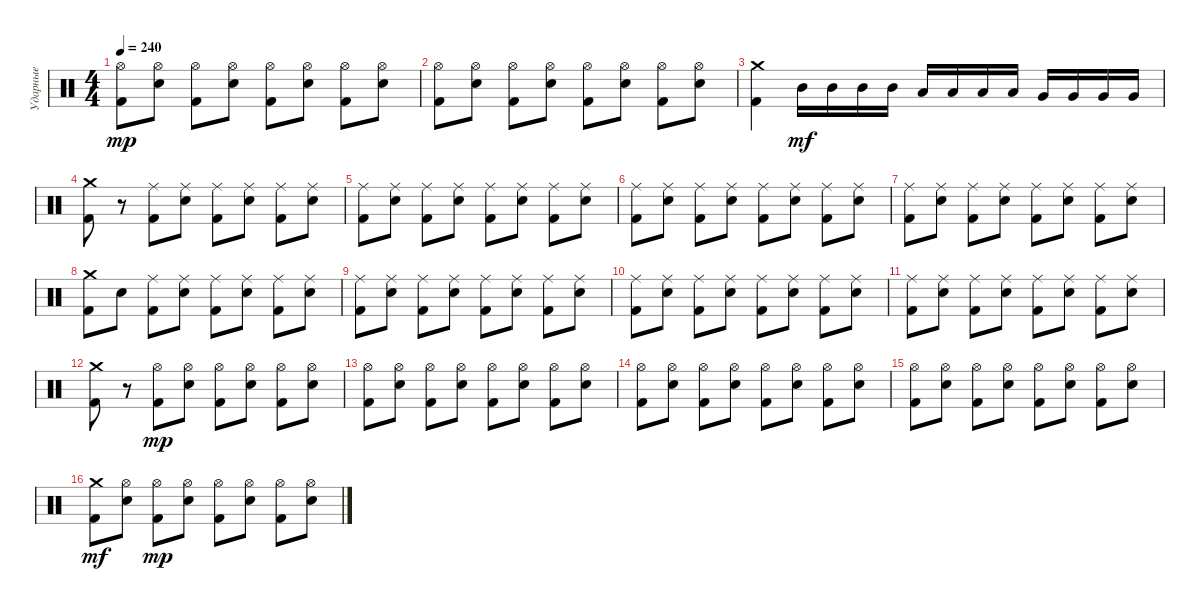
\track ("Ударные" "Ударные") {instrument percussion}
\staff {score}
\articulation defaults
\ts (4 4)
\tempo 240
\clef neutral
\ks c
("Hi-Hat (open)" "Kick (hit) 2").8{dy mp} ("Hi-Hat (open)" "Snare (hit) 2").8 ("Hi-Hat (open)" "Kick (hit) 2").8 ("Hi-Hat (open)" "Snare (hit) 2").8 ("Hi-Hat (open)" "Kick (hit) 2").8 ("Hi-Hat (open)" "Snare (hit) 2").8 ("Hi-Hat (open)" "Kick (hit) 2").8 ("Hi-Hat (open)" "Snare (hit) 2").8 |
("Hi-Hat (open)" "Kick (hit) 2").8 ("Hi-Hat (open)" "Snare (hit) 2").8 ("Hi-Hat (open)" "Kick (hit) 2").8 ("Hi-Hat (open)" "Snare (hit) 2").8 ("Hi-Hat (open)" "Kick (hit) 2").8 ("Hi-Hat (open)" "Snare (hit) 2").8 ("Hi-Hat (open)" "Kick (hit) 2").8 ("Hi-Hat (open)" "Snare (hit) 2").8 |
("Crash medium (hit)" "Kick (hit) 2").4 "Mid Tom (hit)".16{dy mf} "Mid Tom (hit)".16 "Mid Tom (hit)".16 "Mid Tom (hit)".16 "Low Tom (hit)".16 "Low Tom (hit)".16 "Low Tom (hit)".16 "Low Tom (hit)".16 "Very Low Tom (hit)".16 "Very Low Tom (hit)".16 "Very Low Tom (hit)".16 "Very Low Tom (hit)".16 |
("Crash medium (hit)" "Kick (hit) 2").8 r.8 ("Ride (middle)" "Kick (hit) 2").8 ("Ride (middle)" "Snare (hit) 2").8 ("Ride (middle)" "Kick (hit) 2").8 ("Ride (middle)" "Snare (hit) 2").8 ("Ride (middle)" "Kick (hit) 2").8 ("Ride (middle)" "Snare (hit) 2").8 |
("Ride (middle)" "Kick (hit) 2").8 ("Ride (middle)" "Snare (hit) 2").8 ("Ride (middle)" "Kick (hit) 2").8 ("Ride (middle)" "Snare (hit) 2").8 ("Ride (middle)" "Kick (hit) 2").8 ("Ride (middle)" "Snare (hit) 2").8 ("Ride (middle)" "Kick (hit) 2").8 ("Ride (middle)" "Snare (hit) 2").8 |
("Ride (middle)" "Kick (hit) 2").8 ("Ride (middle)" "Snare (hit) 2").8 ("Ride (middle)" "Kick (hit) 2").8 ("Ride (middle)" "Snare (hit) 2").8 ("Ride (middle)" "Kick (hit) 2").8 ("Ride (middle)" "Snare (hit) 2").8 ("Ride (middle)" "Kick (hit) 2").8 ("Ride (middle)" "Snare (hit) 2").8 |
("Ride (middle)" "Kick (hit) 2").8 ("Ride (middle)" "Snare (hit) 2").8 ("Ride (middle)" "Kick (hit) 2").8 ("Ride (middle)" "Snare (hit) 2").8 ("Ride (middle)" "Kick (hit) 2").8 ("Ride (middle)" "Snare (hit) 2").8 ("Ride (middle)" "Kick (hit) 2").8 ("Ride (middle)" "Snare (hit) 2").8 |
("Crash medium (hit)" "Kick (hit) 2").8 "Snare (hit) 2".8 ("Ride (middle)" "Kick (hit) 2").8 ("Ride (middle)" "Snare (hit) 2").8 ("Ride (middle)" "Kick (hit) 2").8 ("Ride (middle)" "Snare (hit) 2").8 ("Ride (middle)" "Kick (hit) 2").8 ("Ride (middle)" "Snare (hit) 2").8 |
("Ride (middle)" "Kick (hit) 2").8 ("Ride (middle)" "Snare (hit) 2").8 ("Ride (middle)" "Kick (hit) 2").8 ("Ride (middle)" "Snare (hit) 2").8 ("Ride (middle)" "Kick (hit) 2").8 ("Ride (middle)" "Snare (hit) 2").8 ("Ride (middle)" "Kick (hit) 2").8 ("Ride (middle)" "Snare (hit) 2").8 |
("Ride (middle)" "Kick (hit) 2").8 ("Ride (middle)" "Snare (hit) 2").8 ("Ride (middle)" "Kick (hit) 2").8 ("Ride (middle)" "Snare (hit) 2").8 ("Ride (middle)" "Kick (hit) 2").8 ("Ride (middle)" "Snare (hit) 2").8 ("Ride (middle)" "Kick (hit) 2").8 ("Ride (middle)" "Snare (hit) 2").8 |
("Ride (middle)" "Kick (hit) 2").8 ("Ride (middle)" "Snare (hit) 2").8 ("Ride (middle)" "Kick (hit) 2").8 ("Ride (middle)" "Snare (hit) 2").8 ("Ride (middle)" "Kick (hit) 2").8 ("Ride (middle)" "Snare (hit) 2").8 ("Ride (middle)" "Kick (hit) 2").8 ("Ride (middle)" "Snare (hit) 2").8 |
("Crash medium (hit)" "Kick (hit) 2").8 r.8 ("Hi-Hat (open)" "Kick (hit) 2").8{dy mp} ("Hi-Hat (open)" "Snare (hit) 2").8 ("Hi-Hat (open)" "Kick (hit) 2").8 ("Hi-Hat (open)" "Snare (hit) 2").8 ("Hi-Hat (open)" "Kick (hit) 2").8 ("Hi-Hat (open)" "Snare (hit) 2").8 |
("Hi-Hat (open)" "Kick (hit) 2").8 ("Hi-Hat (open)" "Snare (hit) 2").8 ("Hi-Hat (open)" "Kick (hit) 2").8 ("Hi-Hat (open)" "Snare (hit) 2").8 ("Hi-Hat (open)" "Kick (hit) 2").8 ("Hi-Hat (open)" "Snare (hit) 2").8 ("Hi-Hat (open)" "Kick (hit) 2").8 ("Hi-Hat (open)" "Snare (hit) 2").8 |
("Hi-Hat (open)" "Kick (hit) 2").8 ("Hi-Hat (open)" "Snare (hit) 2").8 ("Hi-Hat (open)" "Kick (hit) 2").8 ("Hi-Hat (open)" "Snare (hit) 2").8 ("Hi-Hat (open)" "Kick (hit) 2").8 ("Hi-Hat (open)" "Snare (hit) 2").8 ("Hi-Hat (open)" "Kick (hit) 2").8 ("Hi-Hat (open)" "Snare (hit) 2").8 |
("Hi-Hat (open)" "Kick (hit) 2").8 ("Hi-Hat (open)" "Snare (hit) 2").8 ("Hi-Hat (open)" "Kick (hit) 2").8 ("Hi-Hat (open)" "Snare (hit) 2").8 ("Hi-Hat (open)" "Kick (hit) 2").8 ("Hi-Hat (open)" "Snare (hit) 2").8 ("Hi-Hat (open)" "Kick (hit) 2").8 ("Hi-Hat (open)" "Snare (hit) 2").8 |
("Crash medium (hit)" "Kick (hit) 2").8{dy mf} ("Hi-Hat (open)" "Snare (hit) 2").8 ("Hi-Hat (open)" "Kick (hit) 2").8{dy mp} ("Hi-Hat (open)" "Snare (hit) 2").8 ("Hi-Hat (open)" "Kick (hit) 2").8 ("Hi-Hat (open)" "Snare (hit) 2").8 ("Hi-Hat (open)" "Kick (hit) 2").8 ("Hi-Hat (open)" "Snare (hit) 2").8
